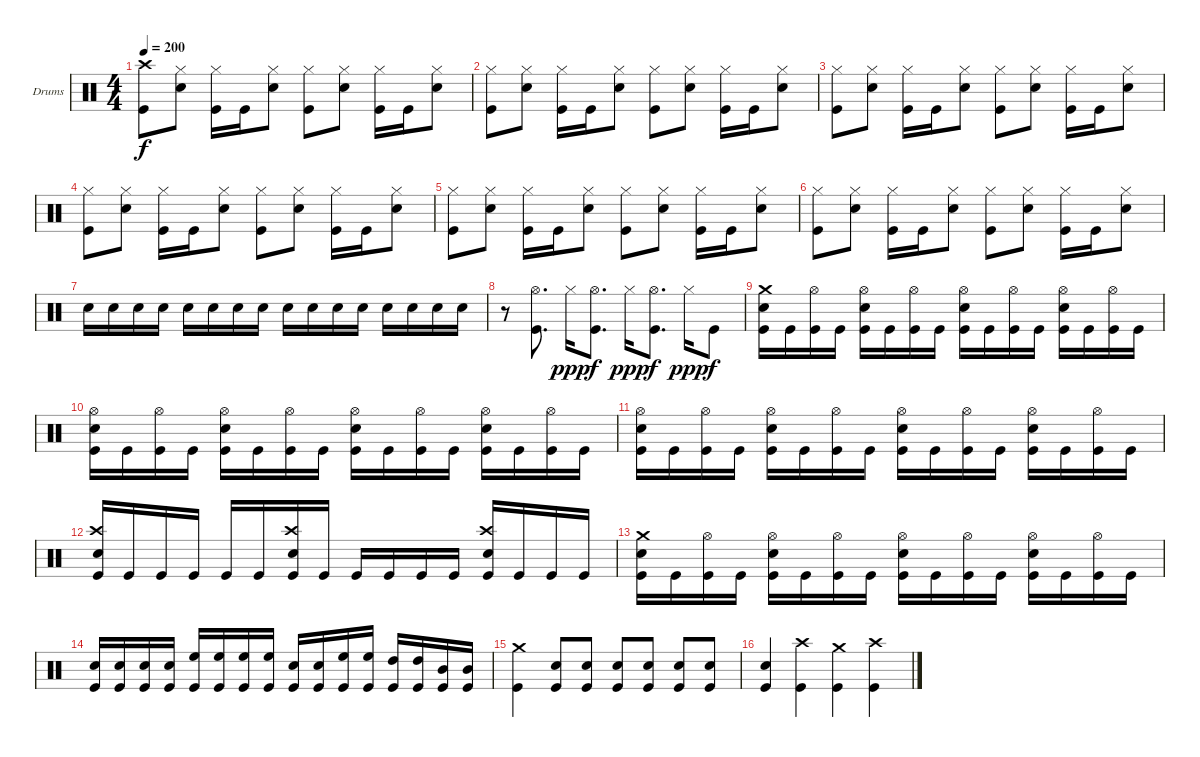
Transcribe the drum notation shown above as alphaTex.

\bracketExtendMode groupsimilarinstruments
\firstSystemTrackNameOrientation horizontal
\otherSystemsTrackNameOrientation horizontal
\track ("Drumkit" "Drums") {instrument percussion}
\staff {score}
\articulation defaults
\ts (4 4)
\section ("" "")
\tempo 200
\clef neutral
\ks aminor
("Kick (hit)" "Crash high (hit)").8{dy f} ("Snare (hit) 2" "Hi-Hat (closed)").8 ("Kick (hit)" "Hi-Hat (closed)").16 "Kick (hit)".16 ("Snare (hit) 2" "Hi-Hat (closed)").8 ("Kick (hit)" "Hi-Hat (closed)").8 ("Snare (hit) 2" "Hi-Hat (closed)").8 ("Kick (hit)" "Hi-Hat (closed)").16 "Kick (hit)".16 ("Snare (hit) 2" "Hi-Hat (closed)").8 |
("Kick (hit)" "Hi-Hat (closed)").8 ("Snare (hit) 2" "Hi-Hat (closed)").8 ("Kick (hit)" "Hi-Hat (closed)").16 "Kick (hit)".16 ("Snare (hit) 2" "Hi-Hat (closed)").8 ("Kick (hit)" "Hi-Hat (closed)").8 ("Snare (hit) 2" "Hi-Hat (closed)").8 ("Kick (hit)" "Hi-Hat (closed)").16 "Kick (hit)".16 ("Snare (hit) 2" "Hi-Hat (closed)").8 |
("Kick (hit)" "Hi-Hat (closed)").8 ("Snare (hit) 2" "Hi-Hat (closed)").8 ("Kick (hit)" "Hi-Hat (closed)").16 "Kick (hit)".16 ("Snare (hit) 2" "Hi-Hat (closed)").8 ("Kick (hit)" "Hi-Hat (closed)").8 ("Snare (hit) 2" "Hi-Hat (closed)").8 ("Kick (hit)" "Hi-Hat (closed)").16 "Kick (hit)".16 ("Snare (hit) 2" "Hi-Hat (closed)").8 |
("Kick (hit)" "Hi-Hat (closed)").8 ("Snare (hit) 2" "Hi-Hat (closed)").8 ("Kick (hit)" "Hi-Hat (closed)").16 "Kick (hit)".16 ("Snare (hit) 2" "Hi-Hat (closed)").8 ("Kick (hit)" "Hi-Hat (closed)").8 ("Snare (hit) 2" "Hi-Hat (closed)").8 ("Kick (hit)" "Hi-Hat (closed)").16 "Kick (hit)".16 ("Snare (hit) 2" "Hi-Hat (closed)").8 |
("Kick (hit)" "Hi-Hat (closed)").8 ("Snare (hit) 2" "Hi-Hat (closed)").8 ("Kick (hit)" "Hi-Hat (closed)").16 "Kick (hit)".16 ("Snare (hit) 2" "Hi-Hat (closed)").8 ("Kick (hit)" "Hi-Hat (closed)").8 ("Snare (hit) 2" "Hi-Hat (closed)").8 ("Kick (hit)" "Hi-Hat (closed)").16 "Kick (hit)".16 ("Snare (hit) 2" "Hi-Hat (closed)").8 |
("Kick (hit)" "Hi-Hat (closed)").8 ("Snare (hit) 2" "Hi-Hat (closed)").8 ("Kick (hit)" "Hi-Hat (closed)").16 "Kick (hit)".16 ("Snare (hit) 2" "Hi-Hat (closed)").8 ("Kick (hit)" "Hi-Hat (closed)").8 ("Snare (hit) 2" "Hi-Hat (closed)").8 ("Kick (hit)" "Hi-Hat (closed)").16 "Kick (hit)".16 ("Snare (hit) 2" "Hi-Hat (closed)").8 |
"Snare (hit) 2".16 "Snare (hit) 2".16 "Snare (hit) 2".16 "Snare (hit) 2".16 "Snare (hit) 2".16 "Snare (hit) 2".16 "Snare (hit) 2".16 "Snare (hit) 2".16 "Snare (hit) 2".16 "Snare (hit) 2".16 "Snare (hit) 2".16 "Snare (hit) 2".16 "Snare (hit) 2".16 "Snare (hit) 2".16 "Snare (hit) 2".16 "Snare (hit) 2".16 |
r.8 ("Kick (hit)" "Hi-Hat (open)").8{d} "Hi-Hat (closed)".16{dy ppp} ("Kick (hit)" "Hi-Hat (open)").8{d dy f} "Hi-Hat (closed)".16{dy ppp} ("Kick (hit)" "Hi-Hat (open)").8{d dy f} "Hi-Hat (closed)".16{dy ppp} "Kick (hit)".8{dy f} |
\section ("" "")
("Kick (hit)" "Snare (hit) 2" "Crash medium (hit)").16 "Kick (hit)".16 ("Kick (hit)" "Hi-Hat (open)").16 "Kick (hit)".16 ("Kick (hit)" "Snare (hit) 2" "Hi-Hat (open)").16 "Kick (hit)".16 ("Kick (hit)" "Hi-Hat (open)").16 "Kick (hit)".16 ("Kick (hit)" "Snare (hit) 2" "Hi-Hat (open)").16 "Kick (hit)".16 ("Kick (hit)" "Hi-Hat (open)").16 "Kick (hit)".16 ("Kick (hit)" "Snare (hit) 2" "Hi-Hat (open)").16 "Kick (hit)".16 ("Kick (hit)" "Hi-Hat (open)").16 "Kick (hit)".16 |
("Kick (hit)" "Snare (hit) 2" "Hi-Hat (open)").16 "Kick (hit)".16 ("Kick (hit)" "Hi-Hat (open)").16 "Kick (hit)".16 ("Kick (hit)" "Snare (hit) 2" "Hi-Hat (open)").16 "Kick (hit)".16 ("Kick (hit)" "Hi-Hat (open)").16 "Kick (hit)".16 ("Kick (hit)" "Snare (hit) 2" "Hi-Hat (open)").16 "Kick (hit)".16 ("Kick (hit)" "Hi-Hat (open)").16 "Kick (hit)".16 ("Kick (hit)" "Snare (hit) 2" "Hi-Hat (open)").16 "Kick (hit)".16 ("Kick (hit)" "Hi-Hat (open)").16 "Kick (hit)".16 |
("Kick (hit)" "Snare (hit) 2" "Hi-Hat (open)").16 "Kick (hit)".16 ("Kick (hit)" "Hi-Hat (open)").16 "Kick (hit)".16 ("Kick (hit)" "Snare (hit) 2" "Hi-Hat (open)").16 "Kick (hit)".16 ("Kick (hit)" "Hi-Hat (open)").16 "Kick (hit)".16 ("Kick (hit)" "Snare (hit) 2" "Hi-Hat (open)").16 "Kick (hit)".16 ("Kick (hit)" "Hi-Hat (open)").16 "Kick (hit)".16 ("Kick (hit)" "Snare (hit) 2" "Hi-Hat (open)").16 "Kick (hit)".16 ("Kick (hit)" "Hi-Hat (open)").16 "Kick (hit)".16 |
("Kick (hit)" "Snare (hit) 2" "Crash high (hit)").16 "Kick (hit)".16 "Kick (hit)".16 "Kick (hit)".16 "Kick (hit)".16 "Kick (hit)".16 ("Kick (hit)" "Snare (hit) 2" "Crash high (hit)").16 "Kick (hit)".16 "Kick (hit)".16 "Kick (hit)".16 "Kick (hit)".16 "Kick (hit)".16 ("Kick (hit)" "Snare (hit) 2" "Crash high (hit)").16 "Kick (hit)".16 "Kick (hit)".16 "Kick (hit)".16 |
("Kick (hit)" "Snare (hit) 2" "Crash medium (hit)").16 "Kick (hit)".16 ("Kick (hit)" "Hi-Hat (open)").16 "Kick (hit)".16 ("Kick (hit)" "Snare (hit) 2" "Hi-Hat (open)").16 "Kick (hit)".16 ("Kick (hit)" "Hi-Hat (open)").16 "Kick (hit)".16 ("Kick (hit)" "Snare (hit) 2" "Hi-Hat (open)").16 "Kick (hit)".16 ("Kick (hit)" "Hi-Hat (open)").16 "Kick (hit)".16 ("Kick (hit)" "Snare (hit) 2" "Hi-Hat (open)").16 "Kick (hit)".16 ("Kick (hit)" "Hi-Hat (open)").16 "Kick (hit)".16 |
("Kick (hit)" "Snare (hit) 2").16 ("Kick (hit)" "Snare (hit) 2").16 ("Kick (hit)" "Snare (hit) 2").16 ("Kick (hit)" "Snare (hit) 2").16 ("Kick (hit)" "High Floor Tom (hit)").16 ("Kick (hit)" "High Floor Tom (hit)").16 ("Kick (hit)" "High Floor Tom (hit)").16 ("Kick (hit)" "High Floor Tom (hit)").16 ("Kick (hit)" "Snare (hit) 2").16 ("Kick (hit)" "Snare (hit) 2").16 ("Kick (hit)" "High Floor Tom (hit)").16 ("Kick (hit)" "High Floor Tom (hit)").16 ("Kick (hit)" "High Tom (hit)").16 ("Kick (hit)" "High Tom (hit)").16 ("Kick (hit)" "Mid Tom (hit)").16 ("Kick (hit)" "Mid Tom (hit)").16 |
("Kick (hit)" "Crash medium (hit)").4 ("Kick (hit)" "Snare (hit) 2").8 ("Kick (hit)" "Snare (hit) 2").8 ("Kick (hit)" "Snare (hit) 2").8 ("Kick (hit)" "Snare (hit) 2").8 ("Kick (hit)" "Snare (hit) 2").8 ("Kick (hit)" "Snare (hit) 2").8 |
("Kick (hit)" "Snare (hit) 2").4 ("Kick (hit)" "Crash high (hit)").4 ("Kick (hit)" "Crash medium (hit)").4 ("Kick (hit)" "Crash high (hit)").4
